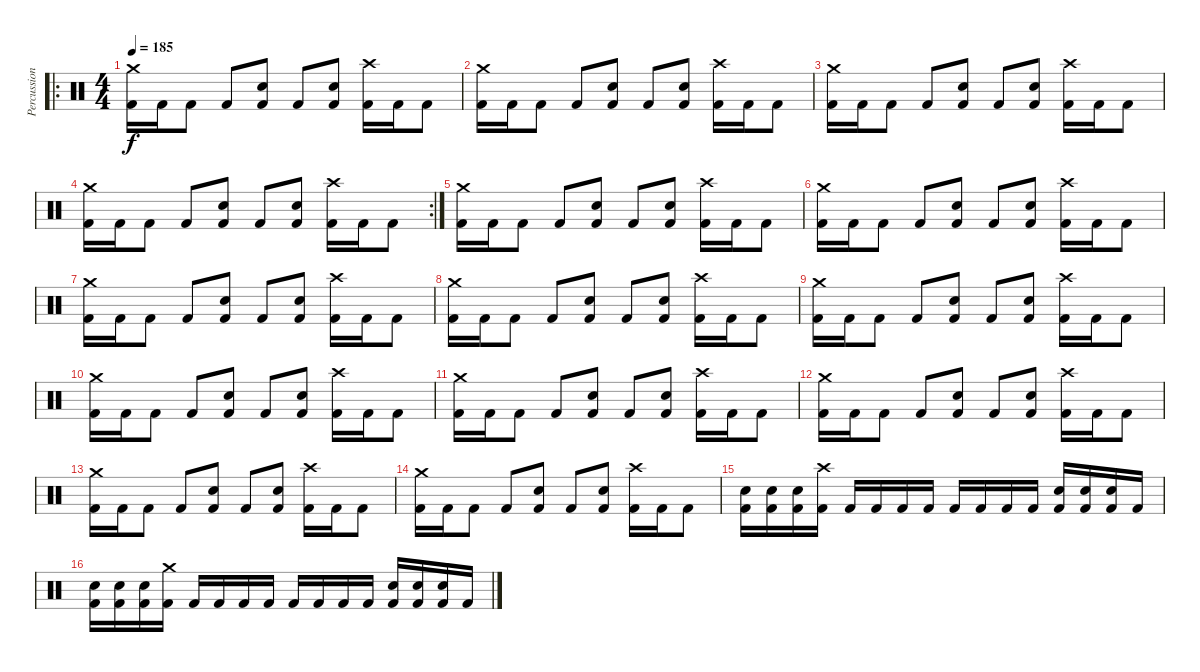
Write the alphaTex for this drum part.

\track ("Percussion" "Percussion") {instrument percussion}
\staff {score}
\articulation defaults
\ro
\ts (4 4)
\tempo 185
\clef neutral
\ks c
("Kick (hit) 2" "Crash medium (hit)").16{dy f} "Kick (hit) 2".16 "Kick (hit) 2".8 "Kick (hit) 2".8 ("Kick (hit) 2" "Electric Snare (hit)").8 "Kick (hit) 2".8 ("Kick (hit) 2" "Electric Snare (hit)").8 ("Kick (hit) 2" "Crash high (hit)").16 "Kick (hit) 2".16 "Kick (hit) 2".8 |
("Kick (hit) 2" "Crash medium (hit)").16 "Kick (hit) 2".16 "Kick (hit) 2".8 "Kick (hit) 2".8 ("Kick (hit) 2" "Electric Snare (hit)").8 "Kick (hit) 2".8 ("Kick (hit) 2" "Electric Snare (hit)").8 ("Kick (hit) 2" "Crash high (hit)").16 "Kick (hit) 2".16 "Kick (hit) 2".8 |
("Kick (hit) 2" "Crash medium (hit)").16 "Kick (hit) 2".16 "Kick (hit) 2".8 "Kick (hit) 2".8 ("Kick (hit) 2" "Electric Snare (hit)").8 "Kick (hit) 2".8 ("Kick (hit) 2" "Electric Snare (hit)").8 ("Kick (hit) 2" "Crash high (hit)").16 "Kick (hit) 2".16 "Kick (hit) 2".8 |
\rc 2
("Kick (hit) 2" "Crash medium (hit)").16 "Kick (hit) 2".16 "Kick (hit) 2".8 "Kick (hit) 2".8 ("Kick (hit) 2" "Electric Snare (hit)").8 "Kick (hit) 2".8 ("Kick (hit) 2" "Electric Snare (hit)").8 ("Kick (hit) 2" "Crash high (hit)").16 "Kick (hit) 2".16 "Kick (hit) 2".8 |
("Kick (hit) 2" "Crash medium (hit)").16 "Kick (hit) 2".16 "Kick (hit) 2".8 "Kick (hit) 2".8 ("Kick (hit) 2" "Electric Snare (hit)").8 "Kick (hit) 2".8 ("Kick (hit) 2" "Electric Snare (hit)").8 ("Kick (hit) 2" "Crash high (hit)").16 "Kick (hit) 2".16 "Kick (hit) 2".8 |
("Kick (hit) 2" "Crash medium (hit)").16 "Kick (hit) 2".16 "Kick (hit) 2".8 "Kick (hit) 2".8 ("Kick (hit) 2" "Electric Snare (hit)").8 "Kick (hit) 2".8 ("Kick (hit) 2" "Electric Snare (hit)").8 ("Kick (hit) 2" "Crash high (hit)").16 "Kick (hit) 2".16 "Kick (hit) 2".8 |
("Kick (hit) 2" "Crash medium (hit)").16 "Kick (hit) 2".16 "Kick (hit) 2".8 "Kick (hit) 2".8 ("Kick (hit) 2" "Electric Snare (hit)").8 "Kick (hit) 2".8 ("Kick (hit) 2" "Electric Snare (hit)").8 ("Kick (hit) 2" "Crash high (hit)").16 "Kick (hit) 2".16 "Kick (hit) 2".8 |
("Kick (hit) 2" "Crash medium (hit)").16 "Kick (hit) 2".16 "Kick (hit) 2".8 "Kick (hit) 2".8 ("Kick (hit) 2" "Electric Snare (hit)").8 "Kick (hit) 2".8 ("Kick (hit) 2" "Electric Snare (hit)").8 ("Kick (hit) 2" "Crash high (hit)").16 "Kick (hit) 2".16 "Kick (hit) 2".8 |
("Kick (hit) 2" "Crash medium (hit)").16 "Kick (hit) 2".16 "Kick (hit) 2".8 "Kick (hit) 2".8 ("Kick (hit) 2" "Electric Snare (hit)").8 "Kick (hit) 2".8 ("Kick (hit) 2" "Electric Snare (hit)").8 ("Kick (hit) 2" "Crash high (hit)").16 "Kick (hit) 2".16 "Kick (hit) 2".8 |
("Kick (hit) 2" "Crash medium (hit)").16 "Kick (hit) 2".16 "Kick (hit) 2".8 "Kick (hit) 2".8 ("Kick (hit) 2" "Electric Snare (hit)").8 "Kick (hit) 2".8 ("Kick (hit) 2" "Electric Snare (hit)").8 ("Kick (hit) 2" "Crash high (hit)").16 "Kick (hit) 2".16 "Kick (hit) 2".8 |
("Kick (hit) 2" "Crash medium (hit)").16 "Kick (hit) 2".16 "Kick (hit) 2".8 "Kick (hit) 2".8 ("Kick (hit) 2" "Electric Snare (hit)").8 "Kick (hit) 2".8 ("Kick (hit) 2" "Electric Snare (hit)").8 ("Kick (hit) 2" "Crash high (hit)").16 "Kick (hit) 2".16 "Kick (hit) 2".8 |
("Kick (hit) 2" "Crash medium (hit)").16 "Kick (hit) 2".16 "Kick (hit) 2".8 "Kick (hit) 2".8 ("Kick (hit) 2" "Electric Snare (hit)").8 "Kick (hit) 2".8 ("Kick (hit) 2" "Electric Snare (hit)").8 ("Kick (hit) 2" "Crash high (hit)").16 "Kick (hit) 2".16 "Kick (hit) 2".8 |
("Kick (hit) 2" "Crash medium (hit)").16 "Kick (hit) 2".16 "Kick (hit) 2".8 "Kick (hit) 2".8 ("Kick (hit) 2" "Electric Snare (hit)").8 "Kick (hit) 2".8 ("Kick (hit) 2" "Electric Snare (hit)").8 ("Kick (hit) 2" "Crash high (hit)").16 "Kick (hit) 2".16 "Kick (hit) 2".8 |
("Kick (hit) 2" "Crash medium (hit)").16 "Kick (hit) 2".16 "Kick (hit) 2".8 "Kick (hit) 2".8 ("Kick (hit) 2" "Electric Snare (hit)").8 "Kick (hit) 2".8 ("Kick (hit) 2" "Electric Snare (hit)").8 ("Kick (hit) 2" "Crash high (hit)").16 "Kick (hit) 2".16 "Kick (hit) 2".8 |
("Kick (hit) 2" "Electric Snare (hit)").16 ("Kick (hit) 2" "Electric Snare (hit)").16 ("Kick (hit) 2" "Electric Snare (hit)").16 ("Kick (hit) 2" "Crash high (hit)").16 "Kick (hit) 2".16 "Kick (hit) 2".16 "Kick (hit) 2".16 "Kick (hit) 2".16 "Kick (hit) 2".16 "Kick (hit) 2".16 "Kick (hit) 2".16 "Kick (hit) 2".16 ("Kick (hit) 2" "Electric Snare (hit)").16 ("Kick (hit) 2" "Electric Snare (hit)").16 ("Kick (hit) 2" "Electric Snare (hit)").16 "Kick (hit) 2".16 |
("Kick (hit) 2" "Electric Snare (hit)").16 ("Kick (hit) 2" "Electric Snare (hit)").16 ("Kick (hit) 2" "Electric Snare (hit)").16 ("Kick (hit) 2" "Crash medium (hit)").16 "Kick (hit) 2".16 "Kick (hit) 2".16 "Kick (hit) 2".16 "Kick (hit) 2".16 "Kick (hit) 2".16 "Kick (hit) 2".16 "Kick (hit) 2".16 "Kick (hit) 2".16 ("Kick (hit) 2" "Electric Snare (hit)").16 ("Kick (hit) 2" "Electric Snare (hit)").16 ("Kick (hit) 2" "Electric Snare (hit)").16 "Kick (hit) 2".16
